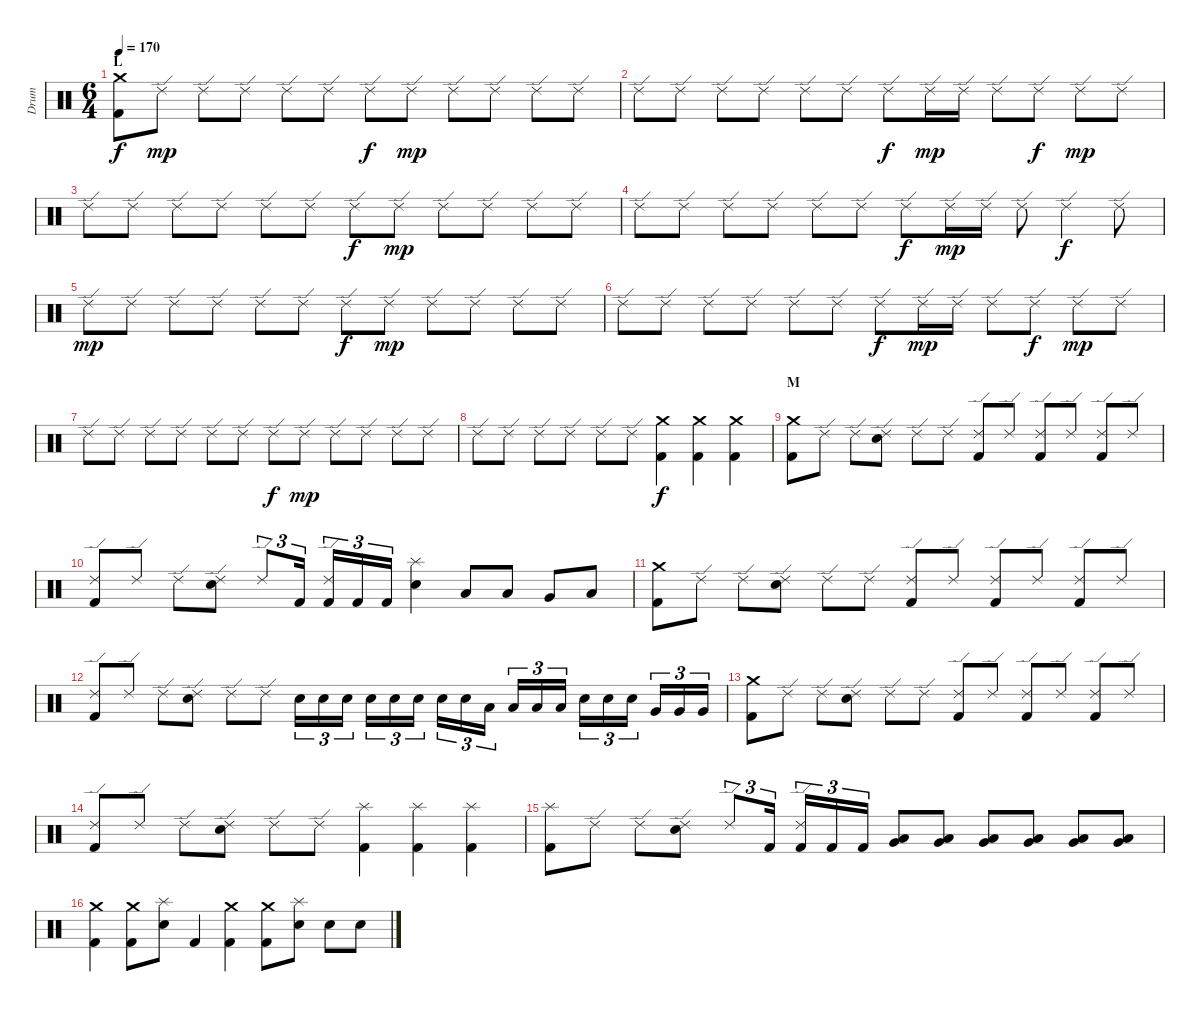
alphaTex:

\track ("Drum" "Drum") {instrument percussion}
\staff {score}
\articulation defaults
\ts (6 4)
\section ("" "L")
\tempo 170
\clef neutral
\ks c
("Crash medium (hit)" "Kick (hit) 2").8{dy f volume 11} "Ride (edge) 2".8{dy mp} "Ride (edge) 2".8 "Ride (edge) 2".8 "Ride (edge) 2".8 "Ride (edge) 2".8 "Ride (edge) 2".8{dy f} "Ride (edge) 2".8{dy mp} "Ride (edge) 2".8 "Ride (edge) 2".8 "Ride (edge) 2".8 "Ride (edge) 2".8 |
"Ride (edge) 2".8 "Ride (edge) 2".8 "Ride (edge) 2".8 "Ride (edge) 2".8 "Ride (edge) 2".8 "Ride (edge) 2".8 "Ride (edge) 2".8{dy f} "Ride (edge) 2".16{dy mp} "Ride (edge) 2".16 "Ride (edge) 2".8 "Ride (edge) 2".8{dy f} "Ride (edge) 2".8{dy mp} "Ride (edge) 2".8 |
"Ride (edge) 2".8 "Ride (edge) 2".8 "Ride (edge) 2".8 "Ride (edge) 2".8 "Ride (edge) 2".8 "Ride (edge) 2".8 "Ride (edge) 2".8{dy f} "Ride (edge) 2".8{dy mp} "Ride (edge) 2".8 "Ride (edge) 2".8 "Ride (edge) 2".8 "Ride (edge) 2".8 |
"Ride (edge) 2".8 "Ride (edge) 2".8 "Ride (edge) 2".8 "Ride (edge) 2".8 "Ride (edge) 2".8 "Ride (edge) 2".8 "Ride (edge) 2".8{dy f} "Ride (edge) 2".16{dy mp} "Ride (edge) 2".16 "Ride (edge) 2".8 "Ride (edge) 2".4{dy f} "Ride (edge) 2".8 |
"Ride (edge) 2".8{dy mp} "Ride (edge) 2".8 "Ride (edge) 2".8 "Ride (edge) 2".8 "Ride (edge) 2".8 "Ride (edge) 2".8 "Ride (edge) 2".8{dy f} "Ride (edge) 2".8{dy mp} "Ride (edge) 2".8 "Ride (edge) 2".8 "Ride (edge) 2".8 "Ride (edge) 2".8 |
"Ride (edge) 2".8 "Ride (edge) 2".8 "Ride (edge) 2".8 "Ride (edge) 2".8 "Ride (edge) 2".8 "Ride (edge) 2".8 "Ride (edge) 2".8{dy f} "Ride (edge) 2".16{dy mp} "Ride (edge) 2".16 "Ride (edge) 2".8 "Ride (edge) 2".8{dy f} "Ride (edge) 2".8{dy mp} "Ride (edge) 2".8 |
"Ride (edge) 2".8 "Ride (edge) 2".8 "Ride (edge) 2".8 "Ride (edge) 2".8 "Ride (edge) 2".8 "Ride (edge) 2".8 "Ride (edge) 2".8{dy f} "Ride (edge) 2".8{dy mp} "Ride (edge) 2".8 "Ride (edge) 2".8 "Ride (edge) 2".8 "Ride (edge) 2".8 |
"Ride (edge) 2".8 "Ride (edge) 2".8 "Ride (edge) 2".8 "Ride (edge) 2".8 "Ride (edge) 2".8 "Ride (edge) 2".8 ("Crash medium (hit)" "Kick (hit) 2").4{dy f} ("Crash medium (hit)" "Kick (hit) 2").4 ("Crash medium (hit)" "Kick (hit) 2").4 |
\section ("" "M")
("Crash medium (hit)" "Kick (hit) 2").8 "Ride (edge) 2".8 "Ride (edge) 2".8 ("Ride (edge) 2" "Electric Snare (hit)").8 "Ride (edge) 2".8 "Ride (edge) 2".8 ("Ride (edge) 2" "Kick (hit) 2").8 "Ride (edge) 2".8 ("Ride (edge) 2" "Kick (hit) 2").8 "Ride (edge) 2".8 ("Ride (edge) 2" "Kick (hit) 2").8 "Ride (edge) 2".8 |
("Ride (edge) 2" "Kick (hit) 2").8 "Ride (edge) 2".8 "Ride (edge) 2".8 ("Ride (edge) 2" "Electric Snare (hit)").8 "Ride (edge) 2".8{tu (3 2)} "Kick (hit) 2".16{tu (3 2)} ("Ride (edge) 2" "Kick (hit) 2").16{tu (3 2)} "Kick (hit) 2".16{tu (3 2)} "Kick (hit) 2".16{tu (3 2)} ("Splash (hit)" "Electric Snare (hit)").4 "Low Tom (hit)".8 "Low Tom (hit)".8 "Very Low Tom (hit)".8 "Low Floor Tom (hit)".8 |
("Crash medium (hit)" "Kick (hit) 2").8 "Ride (edge) 2".8 "Ride (edge) 2".8 ("Ride (edge) 2" "Electric Snare (hit)").8 "Ride (edge) 2".8 "Ride (edge) 2".8 ("Ride (edge) 2" "Kick (hit) 2").8 "Ride (edge) 2".8 ("Ride (edge) 2" "Kick (hit) 2").8 "Ride (edge) 2".8 ("Ride (edge) 2" "Kick (hit) 2").8 "Ride (edge) 2".8 |
("Ride (edge) 2" "Kick (hit) 2").8 "Ride (edge) 2".8 "Ride (edge) 2".8 ("Ride (edge) 2" "Electric Snare (hit)").8 "Ride (edge) 2".8 "Ride (edge) 2".8 "Electric Snare (hit)".16{tu (3 2)} "Electric Snare (hit)".16{tu (3 2)} "Electric Snare (hit)".16{tu (3 2)} "Electric Snare (hit)".16{tu (3 2)} "Electric Snare (hit)".16{tu (3 2)} "Electric Snare (hit)".16{tu (3 2)} "Electric Snare (hit)".16{tu (3 2)} "Electric Snare (hit)".16{tu (3 2)} "Low Tom (hit)".16{tu (3 2)} "Low Tom (hit)".16{tu (3 2)} "Low Tom (hit)".16{tu (3 2)} "Low Tom (hit)".16{tu (3 2)} "Electric Snare (hit)".16{tu (3 2)} "Electric Snare (hit)".16{tu (3 2)} "Electric Snare (hit)".16{tu (3 2)} "Very Low Tom (hit)".16{tu (3 2)} "Very Low Tom (hit)".16{tu (3 2)} "Very Low Tom (hit)".16{tu (3 2)} |
("Crash medium (hit)" "Kick (hit) 2").8 "Ride (edge) 2".8 "Ride (edge) 2".8 ("Ride (edge) 2" "Electric Snare (hit)").8 "Ride (edge) 2".8 "Ride (edge) 2".8 ("Ride (edge) 2" "Kick (hit) 2").8 "Ride (edge) 2".8 ("Ride (edge) 2" "Kick (hit) 2").8 "Ride (edge) 2".8 ("Ride (edge) 2" "Kick (hit) 2").8 "Ride (edge) 2".8 |
("Ride (edge) 2" "Kick (hit) 2").8 "Ride (edge) 2".8 "Ride (edge) 2".8 ("Ride (edge) 2" "Electric Snare (hit)").8 "Ride (edge) 2".8 "Ride (edge) 2".8 ("Splash (hit)" "Kick (hit) 2").4 ("Splash (hit)" "Kick (hit) 2").4 ("Splash (hit)" "Kick (hit) 2").4 |
("Splash (hit)" "Kick (hit) 2").8 "Ride (edge) 2".8 "Ride (edge) 2".8 ("Ride (edge) 2" "Electric Snare (hit)").8 "Ride (edge) 2".8{tu (3 2)} "Kick (hit) 2".16{tu (3 2)} ("Ride (edge) 2" "Kick (hit) 2").16{tu (3 2)} "Kick (hit) 2".16{tu (3 2)} "Kick (hit) 2".16{tu (3 2)} ("Low Tom (hit)" "Very Low Tom (hit)").8 ("Low Tom (hit)" "Very Low Tom (hit)").8 ("Low Tom (hit)" "Very Low Tom (hit)").8 ("Very Low Tom (hit)" "Low Floor Tom (hit)").8 ("Very Low Tom (hit)" "Low Floor Tom (hit)").8 ("Very Low Tom (hit)" "Low Floor Tom (hit)").8 |
("Crash medium (hit)" "Kick (hit) 2").4 ("Crash medium (hit)" "Kick (hit) 2").8 ("Splash (hit)" "Electric Snare (hit)").8 "Kick (hit) 2".4 ("Crash medium (hit)" "Kick (hit) 2").4 ("Crash medium (hit)" "Kick (hit) 2").8 ("Splash (hit)" "Electric Snare (hit)").8 "Electric Snare (hit)".8 "Electric Snare (hit)".8
